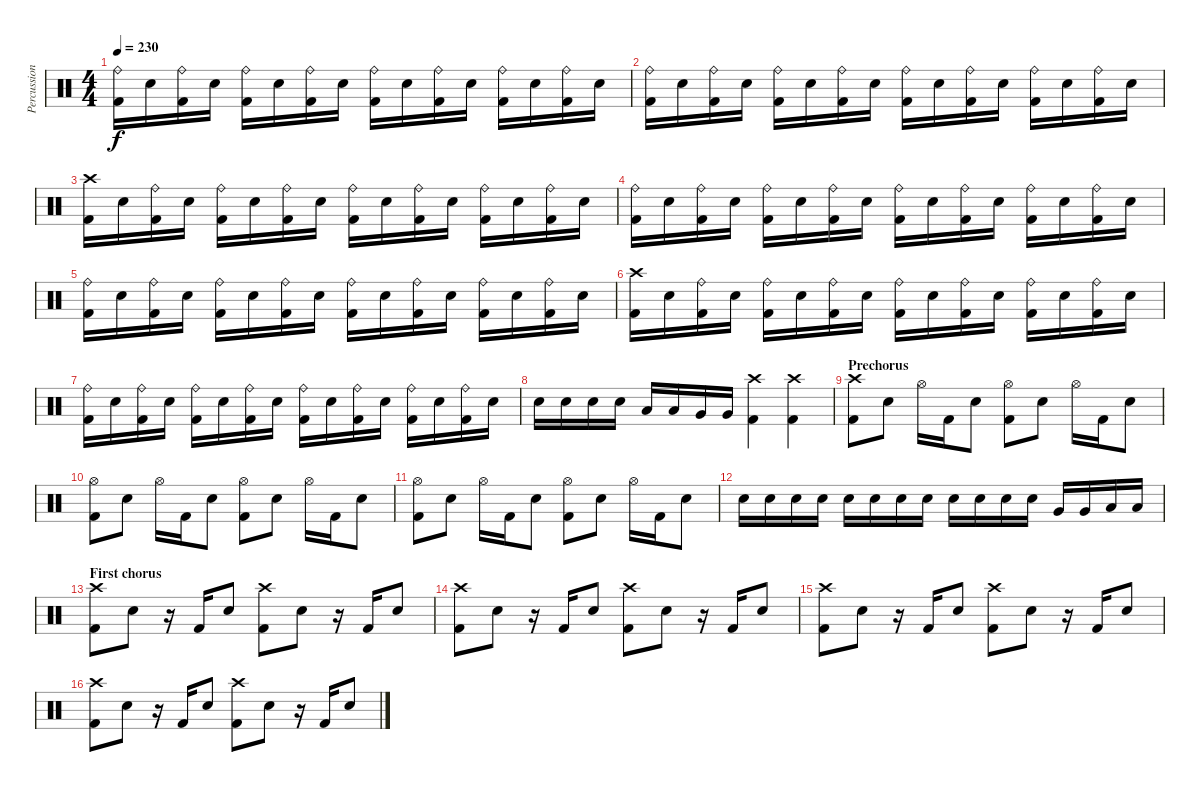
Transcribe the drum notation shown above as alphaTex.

\track ("Percussion" "Percussion") {instrument percussion}
\staff {score}
\articulation defaults
\ts (4 4)
\tempo 230
\clef neutral
\ks c
("Kick (hit) 2" "Ride (bell)").16{dy f} "Snare (hit) 2".16 ("Kick (hit) 2" "Ride (bell)").16 "Snare (hit) 2".16 ("Kick (hit) 2" "Ride (bell)").16 "Snare (hit) 2".16 ("Kick (hit) 2" "Ride (bell)").16 "Snare (hit) 2".16 ("Kick (hit) 2" "Ride (bell)").16 "Snare (hit) 2".16 ("Kick (hit) 2" "Ride (bell)").16 "Snare (hit) 2".16 ("Kick (hit) 2" "Ride (bell)").16 "Snare (hit) 2".16 ("Kick (hit) 2" "Ride (bell)").16 "Snare (hit) 2".16 |
("Kick (hit) 2" "Ride (bell)").16 "Snare (hit) 2".16 ("Kick (hit) 2" "Ride (bell)").16 "Snare (hit) 2".16 ("Kick (hit) 2" "Ride (bell)").16 "Snare (hit) 2".16 ("Kick (hit) 2" "Ride (bell)").16 "Snare (hit) 2".16 ("Kick (hit) 2" "Ride (bell)").16 "Snare (hit) 2".16 ("Kick (hit) 2" "Ride (bell)").16 "Snare (hit) 2".16 ("Kick (hit) 2" "Ride (bell)").16 "Snare (hit) 2".16 ("Kick (hit) 2" "Ride (bell)").16 "Snare (hit) 2".16 |
("Kick (hit) 2" "Crash high (hit)").16 "Snare (hit) 2".16 ("Kick (hit) 2" "Ride (bell)").16 "Snare (hit) 2".16 ("Kick (hit) 2" "Ride (bell)").16 "Snare (hit) 2".16 ("Kick (hit) 2" "Ride (bell)").16 "Snare (hit) 2".16 ("Kick (hit) 2" "Ride (bell)").16 "Snare (hit) 2".16 ("Kick (hit) 2" "Ride (bell)").16 "Snare (hit) 2".16 ("Kick (hit) 2" "Ride (bell)").16 "Snare (hit) 2".16 ("Kick (hit) 2" "Ride (bell)").16 "Snare (hit) 2".16 |
("Kick (hit) 2" "Ride (bell)").16 "Snare (hit) 2".16 ("Kick (hit) 2" "Ride (bell)").16 "Snare (hit) 2".16 ("Kick (hit) 2" "Ride (bell)").16 "Snare (hit) 2".16 ("Kick (hit) 2" "Ride (bell)").16 "Snare (hit) 2".16 ("Kick (hit) 2" "Ride (bell)").16 "Snare (hit) 2".16 ("Kick (hit) 2" "Ride (bell)").16 "Snare (hit) 2".16 ("Kick (hit) 2" "Ride (bell)").16 "Snare (hit) 2".16 ("Kick (hit) 2" "Ride (bell)").16 "Snare (hit) 2".16 |
("Kick (hit) 2" "Ride (bell)").16 "Snare (hit) 2".16 ("Kick (hit) 2" "Ride (bell)").16 "Snare (hit) 2".16 ("Kick (hit) 2" "Ride (bell)").16 "Snare (hit) 2".16 ("Kick (hit) 2" "Ride (bell)").16 "Snare (hit) 2".16 ("Kick (hit) 2" "Ride (bell)").16 "Snare (hit) 2".16 ("Kick (hit) 2" "Ride (bell)").16 "Snare (hit) 2".16 ("Kick (hit) 2" "Ride (bell)").16 "Snare (hit) 2".16 ("Kick (hit) 2" "Ride (bell)").16 "Snare (hit) 2".16 |
("Kick (hit) 2" "Crash high (hit)").16 "Snare (hit) 2".16 ("Kick (hit) 2" "Ride (bell)").16 "Snare (hit) 2".16 ("Kick (hit) 2" "Ride (bell)").16 "Snare (hit) 2".16 ("Kick (hit) 2" "Ride (bell)").16 "Snare (hit) 2".16 ("Kick (hit) 2" "Ride (bell)").16 "Snare (hit) 2".16 ("Kick (hit) 2" "Ride (bell)").16 "Snare (hit) 2".16 ("Kick (hit) 2" "Ride (bell)").16 "Snare (hit) 2".16 ("Kick (hit) 2" "Ride (bell)").16 "Snare (hit) 2".16 |
("Kick (hit) 2" "Ride (bell)").16 "Snare (hit) 2".16 ("Kick (hit) 2" "Ride (bell)").16 "Snare (hit) 2".16 ("Kick (hit) 2" "Ride (bell)").16 "Snare (hit) 2".16 ("Kick (hit) 2" "Ride (bell)").16 "Snare (hit) 2".16 ("Kick (hit) 2" "Ride (bell)").16 "Snare (hit) 2".16 ("Kick (hit) 2" "Ride (bell)").16 "Snare (hit) 2".16 ("Kick (hit) 2" "Ride (bell)").16 "Snare (hit) 2".16 ("Kick (hit) 2" "Ride (bell)").16 "Snare (hit) 2".16 |
"Snare (hit) 2".16 "Snare (hit) 2".16 "Snare (hit) 2".16 "Snare (hit) 2".16 "Low Tom (hit)".16 "Low Tom (hit)".16 "Very Low Tom (hit)".16 "Very Low Tom (hit)".16 ("Kick (hit) 2" "Crash high (hit)").4 ("Kick (hit) 2" "Crash high (hit)").4 |
\section ("" "Prechorus")
("Kick (hit) 2" "Crash high (hit)").8 "Snare (hit) 2".8 "Hi-Hat (open)".16 "Kick (hit) 2".16 "Snare (hit) 2".8 ("Kick (hit) 2" "Hi-Hat (open)").8 "Snare (hit) 2".8 "Hi-Hat (open)".16 "Kick (hit) 2".16 "Snare (hit) 2".8 |
("Kick (hit) 2" "Hi-Hat (open)").8 "Snare (hit) 2".8 "Hi-Hat (open)".16 "Kick (hit) 2".16 "Snare (hit) 2".8 ("Kick (hit) 2" "Hi-Hat (open)").8 "Snare (hit) 2".8 "Hi-Hat (open)".16 "Kick (hit) 2".16 "Snare (hit) 2".8 |
("Kick (hit) 2" "Hi-Hat (open)").8 "Snare (hit) 2".8 "Hi-Hat (open)".16 "Kick (hit) 2".16 "Snare (hit) 2".8 ("Kick (hit) 2" "Hi-Hat (open)").8 "Snare (hit) 2".8 "Hi-Hat (open)".16 "Kick (hit) 2".16 "Snare (hit) 2".8 |
"Snare (hit) 2".16 "Snare (hit) 2".16 "Snare (hit) 2".16 "Snare (hit) 2".16 "Snare (hit) 2".16 "Snare (hit) 2".16 "Snare (hit) 2".16 "Snare (hit) 2".16 "Snare (hit) 2".16 "Snare (hit) 2".16 "Snare (hit) 2".16 "Snare (hit) 2".16 "Very Low Tom (hit)".16 "Very Low Tom (hit)".16 "Low Floor Tom (hit)".16 "Low Floor Tom (hit)".16 |
\section ("" "First chorus")
("Kick (hit) 2" "Crash high (hit)").8 "Snare (hit) 2".8 r.16 "Kick (hit) 2".16 "Snare (hit) 2".8 ("Kick (hit) 2" "Crash high (hit)").8 "Snare (hit) 2".8 r.16 "Kick (hit) 2".16 "Snare (hit) 2".8 |
("Kick (hit) 2" "Crash high (hit)").8 "Snare (hit) 2".8 r.16 "Kick (hit) 2".16 "Snare (hit) 2".8 ("Kick (hit) 2" "Crash high (hit)").8 "Snare (hit) 2".8 r.16 "Kick (hit) 2".16 "Snare (hit) 2".8 |
("Kick (hit) 2" "Crash high (hit)").8 "Snare (hit) 2".8 r.16 "Kick (hit) 2".16 "Snare (hit) 2".8 ("Kick (hit) 2" "Crash high (hit)").8 "Snare (hit) 2".8 r.16 "Kick (hit) 2".16 "Snare (hit) 2".8 |
("Kick (hit) 2" "Crash high (hit)").8 "Snare (hit) 2".8 r.16 "Kick (hit) 2".16 "Snare (hit) 2".8 ("Kick (hit) 2" "Crash high (hit)").8 "Snare (hit) 2".8 r.16 "Kick (hit) 2".16 "Snare (hit) 2".8
